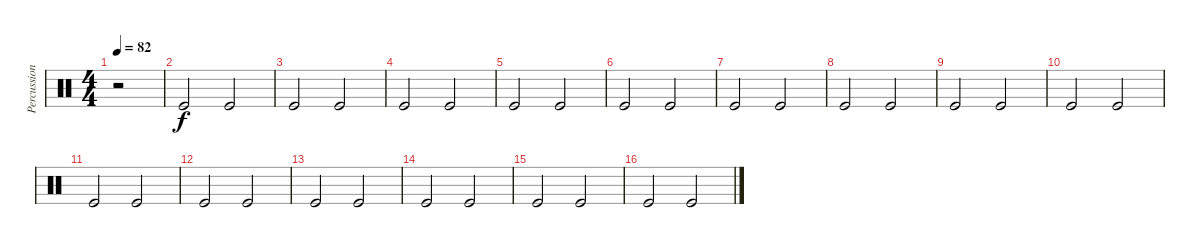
\track ("Percussion" "Percussion") {instrument percussion}
\staff {score}
\articulation defaults
\ts (4 4)
\tempo 82
\clef neutral
\ks c
r.2{dy f volume 0} |
"Kick (hit)".2{volume 8} "Kick (hit)".2 |
"Kick (hit)".2 "Kick (hit)".2 |
"Kick (hit)".2 "Kick (hit)".2 |
"Kick (hit)".2 "Kick (hit)".2 |
"Kick (hit)".2 "Kick (hit)".2 |
"Kick (hit)".2 "Kick (hit)".2 |
"Kick (hit)".2 "Kick (hit)".2 |
"Kick (hit)".2 "Kick (hit)".2 |
"Kick (hit)".2 "Kick (hit)".2 |
"Kick (hit)".2 "Kick (hit)".2 |
"Kick (hit)".2 "Kick (hit)".2 |
"Kick (hit)".2 "Kick (hit)".2 |
"Kick (hit)".2 "Kick (hit)".2 |
"Kick (hit)".2 "Kick (hit)".2 |
"Kick (hit)".2 "Kick (hit)".2
